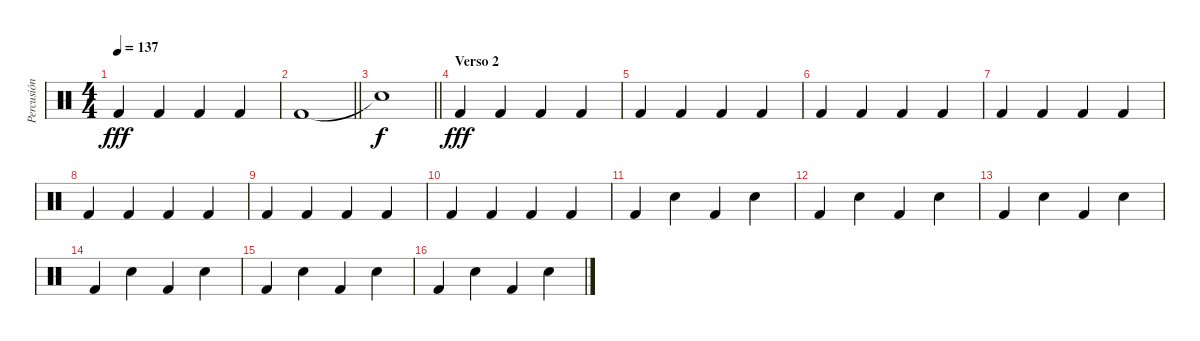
\track ("Percusión" "Percusión") {instrument percussion}
\staff {score}
\articulation defaults
\ts (4 4)
\tempo 137
\clef neutral
\ks c "Kick (hit) 2".4{dy fff} "Kick (hit) 2".4 "Kick (hit) 2".4 "Kick (hit) 2".4
|
\barLineRight lightlight "Kick (hit) 2".1
|
\barLineRight lightlight "Snare (hit)"{t}.1{dy f}
|
\section ("" "Verso 2")
"Kick (hit) 2".4{dy fff} "Kick (hit) 2".4 "Kick (hit) 2".4 "Kick (hit) 2".4 |
"Kick (hit) 2".4 "Kick (hit) 2".4 "Kick (hit) 2".4 "Kick (hit) 2".4 |
"Kick (hit) 2".4 "Kick (hit) 2".4 "Kick (hit) 2".4 "Kick (hit) 2".4 |
"Kick (hit) 2".4 "Kick (hit) 2".4 "Kick (hit) 2".4 "Kick (hit) 2".4 |
"Kick (hit) 2".4 "Kick (hit) 2".4 "Kick (hit) 2".4 "Kick (hit) 2".4 |
"Kick (hit) 2".4 "Kick (hit) 2".4 "Kick (hit) 2".4 "Kick (hit) 2".4 |
"Kick (hit) 2".4 "Kick (hit) 2".4 "Kick (hit) 2".4 "Kick (hit) 2".4 |
"Kick (hit) 2".4 "Electric Snare (hit)".4 "Kick (hit) 2".4 "Electric Snare (hit)".4 |
"Kick (hit) 2".4 "Electric Snare (hit)".4 "Kick (hit) 2".4 "Electric Snare (hit)".4 |
"Kick (hit) 2".4 "Electric Snare (hit)".4 "Kick (hit) 2".4 "Electric Snare (hit)".4 |
"Kick (hit) 2".4 "Electric Snare (hit)".4 "Kick (hit) 2".4 "Electric Snare (hit)".4 |
"Kick (hit) 2".4 "Electric Snare (hit)".4 "Kick (hit) 2".4 "Electric Snare (hit)".4 |
"Kick (hit) 2".4 "Electric Snare (hit)".4 "Kick (hit) 2".4 "Electric Snare (hit)".4
